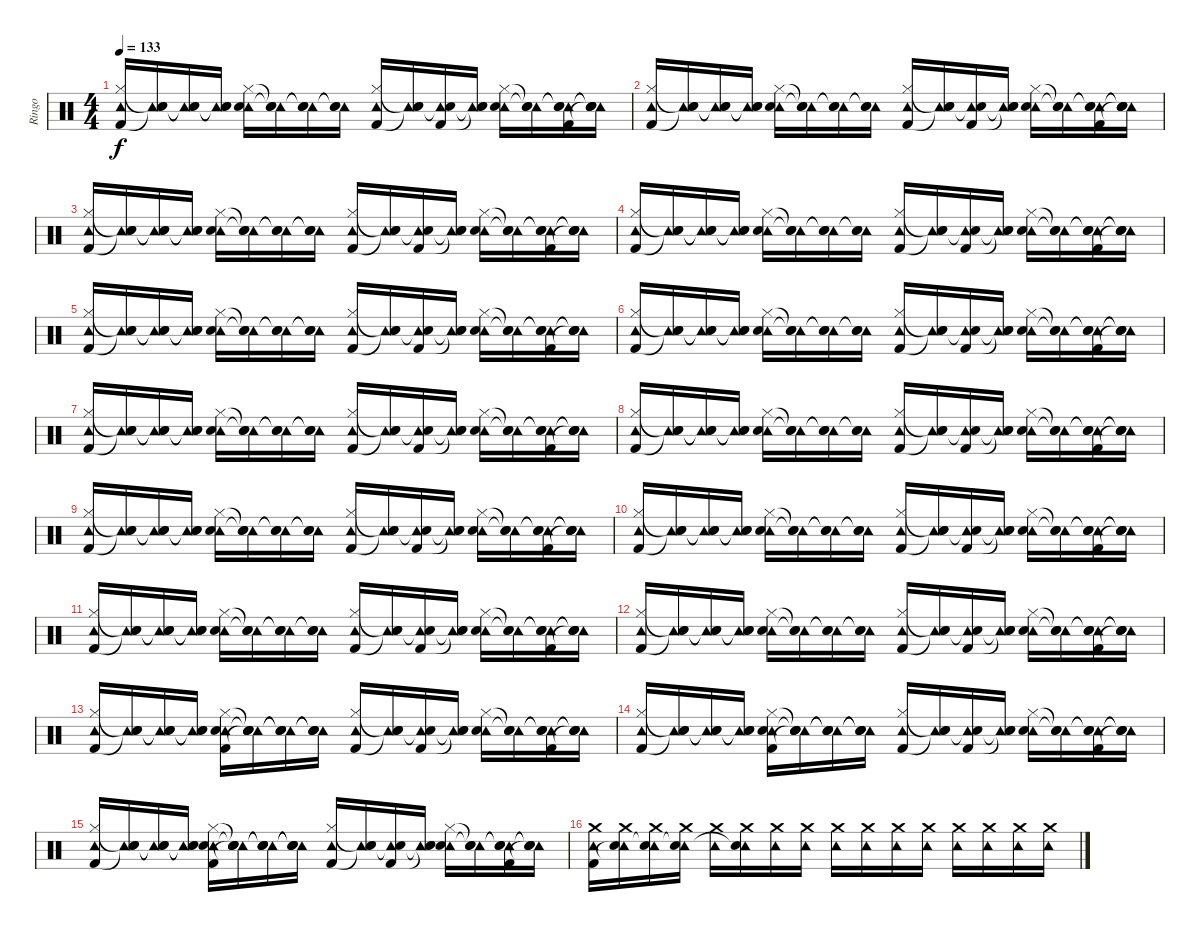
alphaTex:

\track ("Ringo" "Ringo") {instrument percussion}
\staff {score}
\articulation defaults
\ts (4 4)
\tempo 133
\clef neutral
\ks c
("Tambourine (hit)" "Hi-Hat (closed)" "Kick (hit) 2").16{dy f} ("Tambourine (hit)" "Snare (hit)"{t} "Snare (hit)"{t}).16 ("Tambourine (hit)" "Snare (hit)"{t} "Snare (hit)"{t}).16 ("Tambourine (hit)" "Snare (hit)"{t} "Snare (hit)"{t}).16 ("Tambourine (hit)" "Hi-Hat (closed)" "Snare (hit) 2").16 ("Tambourine (hit)" "Snare (hit)"{t} "Snare (hit)"{t}).16 ("Tambourine (hit)" "Snare (hit)"{t} "Snare (hit)"{t}).16 ("Tambourine (hit)" "Snare (hit)"{t} "Snare (hit)"{t}).16 ("Tambourine (hit)" "Hi-Hat (closed)" "Kick (hit) 2").16 ("Tambourine (hit)" "Snare (hit)"{t} "Snare (hit)"{t}).16 ("Tambourine (hit)" "Snare (hit)"{t} "Kick (hit) 2").16 ("Tambourine (hit)" "Snare (hit)"{t} "Snare (hit)"{t}).16 ("Tambourine (hit)" "Hi-Hat (closed)" "Snare (hit) 2").16 ("Tambourine (hit)" "Snare (hit)"{t} "Snare (hit)"{t}).16 ("Tambourine (hit)" "Snare (hit)"{t} "Snare (hit)"{t} "Kick (hit) 2").16 ("Tambourine (hit)" "Snare (hit)"{t} "Snare (hit)"{t} "Snare (hit)"{t}).16 |
("Tambourine (hit)" "Hi-Hat (closed)" "Kick (hit) 2").16 ("Tambourine (hit)" "Snare (hit)"{t} "Snare (hit)"{t}).16 ("Tambourine (hit)" "Snare (hit)"{t} "Snare (hit)"{t}).16 ("Tambourine (hit)" "Snare (hit)"{t} "Snare (hit)"{t}).16 ("Tambourine (hit)" "Hi-Hat (closed)" "Snare (hit) 2").16 ("Tambourine (hit)" "Snare (hit)"{t} "Snare (hit)"{t}).16 ("Tambourine (hit)" "Snare (hit)"{t} "Snare (hit)"{t}).16 ("Tambourine (hit)" "Snare (hit)"{t} "Snare (hit)"{t}).16 ("Tambourine (hit)" "Hi-Hat (closed)" "Kick (hit) 2").16 ("Tambourine (hit)" "Snare (hit)"{t} "Snare (hit)"{t}).16 ("Tambourine (hit)" "Snare (hit)"{t} "Kick (hit) 2").16 ("Tambourine (hit)" "Snare (hit)"{t} "Snare (hit)"{t}).16 ("Tambourine (hit)" "Hi-Hat (closed)" "Snare (hit) 2").16 ("Tambourine (hit)" "Snare (hit)"{t} "Snare (hit)"{t}).16 ("Tambourine (hit)" "Snare (hit)"{t} "Snare (hit)"{t} "Kick (hit) 2").16 ("Tambourine (hit)" "Snare (hit)"{t} "Snare (hit)"{t} "Snare (hit)"{t}).16 |
("Tambourine (hit)" "Hi-Hat (closed)" "Kick (hit) 2").16 ("Tambourine (hit)" "Snare (hit)"{t} "Snare (hit)"{t}).16 ("Tambourine (hit)" "Snare (hit)"{t} "Snare (hit)"{t}).16 ("Tambourine (hit)" "Snare (hit)"{t} "Snare (hit)"{t}).16 ("Tambourine (hit)" "Hi-Hat (closed)" "Snare (hit) 2").16 ("Tambourine (hit)" "Snare (hit)"{t} "Snare (hit)"{t}).16 ("Tambourine (hit)" "Snare (hit)"{t} "Snare (hit)"{t}).16 ("Tambourine (hit)" "Snare (hit)"{t} "Snare (hit)"{t}).16 ("Tambourine (hit)" "Hi-Hat (closed)" "Kick (hit) 2").16 ("Tambourine (hit)" "Snare (hit)"{t} "Snare (hit)"{t}).16 ("Tambourine (hit)" "Snare (hit)"{t} "Kick (hit) 2").16 ("Tambourine (hit)" "Snare (hit)"{t} "Snare (hit)"{t}).16 ("Tambourine (hit)" "Hi-Hat (closed)" "Snare (hit) 2").16 ("Tambourine (hit)" "Snare (hit)"{t} "Snare (hit)"{t}).16 ("Tambourine (hit)" "Snare (hit)"{t} "Snare (hit)"{t} "Kick (hit) 2").16 ("Tambourine (hit)" "Snare (hit)"{t} "Snare (hit)"{t} "Snare (hit)"{t}).16 |
("Tambourine (hit)" "Hi-Hat (closed)" "Kick (hit) 2").16 ("Tambourine (hit)" "Snare (hit)"{t} "Snare (hit)"{t}).16 ("Tambourine (hit)" "Snare (hit)"{t} "Snare (hit)"{t}).16 ("Tambourine (hit)" "Snare (hit)"{t} "Snare (hit)"{t}).16 ("Tambourine (hit)" "Hi-Hat (closed)" "Snare (hit) 2").16 ("Tambourine (hit)" "Snare (hit)"{t} "Snare (hit)"{t}).16 ("Tambourine (hit)" "Snare (hit)"{t} "Snare (hit)"{t}).16 ("Tambourine (hit)" "Snare (hit)"{t} "Snare (hit)"{t}).16 ("Tambourine (hit)" "Hi-Hat (closed)" "Kick (hit) 2").16 ("Tambourine (hit)" "Snare (hit)"{t} "Snare (hit)"{t}).16 ("Tambourine (hit)" "Snare (hit)"{t} "Kick (hit) 2").16 ("Tambourine (hit)" "Snare (hit)"{t} "Snare (hit)"{t}).16 ("Tambourine (hit)" "Hi-Hat (closed)" "Snare (hit) 2").16 ("Tambourine (hit)" "Snare (hit)"{t} "Snare (hit)"{t}).16 ("Tambourine (hit)" "Snare (hit)"{t} "Snare (hit)"{t} "Kick (hit) 2").16 ("Tambourine (hit)" "Snare (hit)"{t} "Snare (hit)"{t} "Snare (hit)"{t}).16 |
("Tambourine (hit)" "Hi-Hat (closed)" "Kick (hit) 2").16 ("Tambourine (hit)" "Snare (hit)"{t} "Snare (hit)"{t}).16 ("Tambourine (hit)" "Snare (hit)"{t} "Snare (hit)"{t}).16 ("Tambourine (hit)" "Snare (hit)"{t} "Snare (hit)"{t}).16 ("Tambourine (hit)" "Hi-Hat (closed)" "Snare (hit) 2").16 ("Tambourine (hit)" "Snare (hit)"{t} "Snare (hit)"{t}).16 ("Tambourine (hit)" "Snare (hit)"{t} "Snare (hit)"{t}).16 ("Tambourine (hit)" "Snare (hit)"{t} "Snare (hit)"{t}).16 ("Tambourine (hit)" "Hi-Hat (closed)" "Kick (hit) 2").16 ("Tambourine (hit)" "Snare (hit)"{t} "Snare (hit)"{t}).16 ("Tambourine (hit)" "Snare (hit)"{t} "Kick (hit) 2").16 ("Tambourine (hit)" "Snare (hit)"{t} "Snare (hit)"{t}).16 ("Tambourine (hit)" "Hi-Hat (closed)" "Snare (hit) 2").16 ("Tambourine (hit)" "Snare (hit)"{t} "Snare (hit)"{t}).16 ("Tambourine (hit)" "Snare (hit)"{t} "Snare (hit)"{t} "Kick (hit) 2").16 ("Tambourine (hit)" "Snare (hit)"{t} "Snare (hit)"{t} "Snare (hit)"{t}).16 |
("Tambourine (hit)" "Hi-Hat (closed)" "Kick (hit) 2").16 ("Tambourine (hit)" "Snare (hit)"{t} "Snare (hit)"{t}).16 ("Tambourine (hit)" "Snare (hit)"{t} "Snare (hit)"{t}).16 ("Tambourine (hit)" "Snare (hit)"{t} "Snare (hit)"{t}).16 ("Tambourine (hit)" "Hi-Hat (closed)" "Snare (hit) 2").16 ("Tambourine (hit)" "Snare (hit)"{t} "Snare (hit)"{t}).16 ("Tambourine (hit)" "Snare (hit)"{t} "Snare (hit)"{t}).16 ("Tambourine (hit)" "Snare (hit)"{t} "Snare (hit)"{t}).16 ("Tambourine (hit)" "Hi-Hat (closed)" "Kick (hit) 2").16 ("Tambourine (hit)" "Snare (hit)"{t} "Snare (hit)"{t}).16 ("Tambourine (hit)" "Snare (hit)"{t} "Kick (hit) 2").16 ("Tambourine (hit)" "Snare (hit)"{t} "Snare (hit)"{t}).16 ("Tambourine (hit)" "Hi-Hat (closed)" "Snare (hit) 2").16 ("Tambourine (hit)" "Snare (hit)"{t} "Snare (hit)"{t}).16 ("Tambourine (hit)" "Snare (hit)"{t} "Snare (hit)"{t} "Kick (hit) 2").16 ("Tambourine (hit)" "Snare (hit)"{t} "Snare (hit)"{t} "Snare (hit)"{t}).16 |
("Tambourine (hit)" "Hi-Hat (closed)" "Kick (hit) 2").16 ("Tambourine (hit)" "Snare (hit)"{t} "Snare (hit)"{t}).16 ("Tambourine (hit)" "Snare (hit)"{t} "Snare (hit)"{t}).16 ("Tambourine (hit)" "Snare (hit)"{t} "Snare (hit)"{t}).16 ("Tambourine (hit)" "Hi-Hat (closed)" "Snare (hit) 2").16 ("Tambourine (hit)" "Snare (hit)"{t} "Snare (hit)"{t}).16 ("Tambourine (hit)" "Snare (hit)"{t} "Snare (hit)"{t}).16 ("Tambourine (hit)" "Snare (hit)"{t} "Snare (hit)"{t}).16 ("Tambourine (hit)" "Hi-Hat (closed)" "Kick (hit) 2").16 ("Tambourine (hit)" "Snare (hit)"{t} "Snare (hit)"{t}).16 ("Tambourine (hit)" "Snare (hit)"{t} "Kick (hit) 2").16 ("Tambourine (hit)" "Snare (hit)"{t} "Snare (hit)"{t}).16 ("Tambourine (hit)" "Hi-Hat (closed)" "Snare (hit) 2").16 ("Tambourine (hit)" "Snare (hit)"{t} "Snare (hit)"{t}).16 ("Tambourine (hit)" "Snare (hit)"{t} "Snare (hit)"{t} "Kick (hit) 2").16 ("Tambourine (hit)" "Snare (hit)"{t} "Snare (hit)"{t} "Snare (hit)"{t}).16 |
("Tambourine (hit)" "Hi-Hat (closed)" "Kick (hit) 2").16 ("Tambourine (hit)" "Snare (hit)"{t} "Snare (hit)"{t}).16 ("Tambourine (hit)" "Snare (hit)"{t} "Snare (hit)"{t}).16 ("Tambourine (hit)" "Snare (hit)"{t} "Snare (hit)"{t}).16 ("Tambourine (hit)" "Hi-Hat (closed)" "Snare (hit) 2").16 ("Tambourine (hit)" "Snare (hit)"{t} "Snare (hit)"{t}).16 ("Tambourine (hit)" "Snare (hit)"{t} "Snare (hit)"{t}).16 ("Tambourine (hit)" "Snare (hit)"{t} "Snare (hit)"{t}).16 ("Tambourine (hit)" "Hi-Hat (closed)" "Kick (hit) 2").16 ("Tambourine (hit)" "Snare (hit)"{t} "Snare (hit)"{t}).16 ("Tambourine (hit)" "Snare (hit)"{t} "Kick (hit) 2").16 ("Tambourine (hit)" "Snare (hit)"{t} "Snare (hit)"{t}).16 ("Tambourine (hit)" "Hi-Hat (closed)" "Snare (hit) 2").16 ("Tambourine (hit)" "Snare (hit)"{t} "Snare (hit)"{t}).16 ("Tambourine (hit)" "Snare (hit)"{t} "Snare (hit)"{t} "Kick (hit) 2").16 ("Tambourine (hit)" "Snare (hit)"{t} "Snare (hit)"{t} "Snare (hit)"{t}).16 |
("Tambourine (hit)" "Hi-Hat (closed)" "Kick (hit) 2").16 ("Tambourine (hit)" "Snare (hit)"{t} "Snare (hit)"{t}).16 ("Tambourine (hit)" "Snare (hit)"{t} "Snare (hit)"{t}).16 ("Tambourine (hit)" "Snare (hit)"{t} "Snare (hit)"{t}).16 ("Tambourine (hit)" "Hi-Hat (closed)" "Snare (hit) 2").16 ("Tambourine (hit)" "Snare (hit)"{t} "Snare (hit)"{t}).16 ("Tambourine (hit)" "Snare (hit)"{t} "Snare (hit)"{t}).16 ("Tambourine (hit)" "Snare (hit)"{t} "Snare (hit)"{t}).16 ("Tambourine (hit)" "Hi-Hat (closed)" "Kick (hit) 2").16 ("Tambourine (hit)" "Snare (hit)"{t} "Snare (hit)"{t}).16 ("Tambourine (hit)" "Snare (hit)"{t} "Kick (hit) 2").16 ("Tambourine (hit)" "Snare (hit)"{t} "Snare (hit)"{t}).16 ("Tambourine (hit)" "Hi-Hat (closed)" "Snare (hit) 2").16 ("Tambourine (hit)" "Snare (hit)"{t} "Snare (hit)"{t}).16 ("Tambourine (hit)" "Snare (hit)"{t} "Snare (hit)"{t} "Kick (hit) 2").16 ("Tambourine (hit)" "Snare (hit)"{t} "Snare (hit)"{t} "Snare (hit)"{t}).16 |
("Tambourine (hit)" "Hi-Hat (closed)" "Kick (hit) 2").16 ("Tambourine (hit)" "Snare (hit)"{t} "Snare (hit)"{t}).16 ("Tambourine (hit)" "Snare (hit)"{t} "Snare (hit)"{t}).16 ("Tambourine (hit)" "Snare (hit)"{t} "Snare (hit)"{t}).16 ("Tambourine (hit)" "Hi-Hat (closed)" "Snare (hit) 2").16 ("Tambourine (hit)" "Snare (hit)"{t} "Snare (hit)"{t}).16 ("Tambourine (hit)" "Snare (hit)"{t} "Snare (hit)"{t}).16 ("Tambourine (hit)" "Snare (hit)"{t} "Snare (hit)"{t}).16 ("Tambourine (hit)" "Hi-Hat (closed)" "Kick (hit) 2").16 ("Tambourine (hit)" "Snare (hit)"{t} "Snare (hit)"{t}).16 ("Tambourine (hit)" "Snare (hit)"{t} "Kick (hit) 2").16 ("Tambourine (hit)" "Snare (hit)"{t} "Snare (hit)"{t}).16 ("Tambourine (hit)" "Hi-Hat (closed)" "Snare (hit) 2").16 ("Tambourine (hit)" "Snare (hit)"{t} "Snare (hit)"{t}).16 ("Tambourine (hit)" "Snare (hit)"{t} "Snare (hit)"{t} "Kick (hit) 2").16 ("Tambourine (hit)" "Snare (hit)"{t} "Snare (hit)"{t} "Snare (hit)"{t}).16 |
("Tambourine (hit)" "Hi-Hat (closed)" "Kick (hit) 2").16 ("Tambourine (hit)" "Snare (hit)"{t} "Snare (hit)"{t}).16 ("Tambourine (hit)" "Snare (hit)"{t} "Snare (hit)"{t}).16 ("Tambourine (hit)" "Snare (hit)"{t} "Snare (hit)"{t}).16 ("Tambourine (hit)" "Hi-Hat (closed)" "Snare (hit) 2").16 ("Tambourine (hit)" "Snare (hit)"{t} "Snare (hit)"{t}).16 ("Tambourine (hit)" "Snare (hit)"{t} "Snare (hit)"{t}).16 ("Tambourine (hit)" "Snare (hit)"{t} "Snare (hit)"{t}).16 ("Tambourine (hit)" "Hi-Hat (closed)" "Kick (hit) 2").16 ("Tambourine (hit)" "Snare (hit)"{t} "Snare (hit)"{t}).16 ("Tambourine (hit)" "Snare (hit)"{t} "Kick (hit) 2").16 ("Tambourine (hit)" "Snare (hit)"{t} "Snare (hit)"{t}).16 ("Tambourine (hit)" "Hi-Hat (closed)" "Snare (hit) 2").16 ("Tambourine (hit)" "Snare (hit)"{t} "Snare (hit)"{t}).16 ("Tambourine (hit)" "Snare (hit)"{t} "Snare (hit)"{t} "Kick (hit) 2").16 ("Tambourine (hit)" "Snare (hit)"{t} "Snare (hit)"{t} "Snare (hit)"{t}).16 |
("Tambourine (hit)" "Hi-Hat (closed)" "Kick (hit) 2").16 ("Tambourine (hit)" "Snare (hit)"{t} "Snare (hit)"{t}).16 ("Tambourine (hit)" "Snare (hit)"{t} "Snare (hit)"{t}).16 ("Tambourine (hit)" "Snare (hit)"{t} "Snare (hit)"{t}).16 ("Tambourine (hit)" "Hi-Hat (closed)" "Snare (hit) 2").16 ("Tambourine (hit)" "Snare (hit)"{t} "Snare (hit)"{t}).16 ("Tambourine (hit)" "Snare (hit)"{t} "Snare (hit)"{t}).16 ("Tambourine (hit)" "Snare (hit)"{t} "Snare (hit)"{t}).16 ("Tambourine (hit)" "Hi-Hat (closed)" "Kick (hit) 2").16 ("Tambourine (hit)" "Snare (hit)"{t} "Snare (hit)"{t}).16 ("Tambourine (hit)" "Snare (hit)"{t} "Kick (hit) 2").16 ("Tambourine (hit)" "Snare (hit)"{t} "Snare (hit)"{t}).16 ("Tambourine (hit)" "Hi-Hat (closed)" "Snare (hit) 2").16 ("Tambourine (hit)" "Snare (hit)"{t} "Snare (hit)"{t}).16 ("Tambourine (hit)" "Snare (hit)"{t} "Snare (hit)"{t} "Kick (hit) 2").16 ("Tambourine (hit)" "Snare (hit)"{t} "Snare (hit)"{t} "Snare (hit)"{t}).16 |
("Tambourine (hit)" "Hi-Hat (closed)" "Kick (hit) 2").16 ("Tambourine (hit)" "Snare (hit)"{t} "Snare (hit)"{t}).16 ("Tambourine (hit)" "Snare (hit)"{t} "Snare (hit)"{t}).16 ("Tambourine (hit)" "Snare (hit)"{t} "Snare (hit)"{t}).16 ("Tambourine (hit)" "Hi-Hat (closed)" "Snare (hit) 2" "Kick (hit) 2").16 ("Tambourine (hit)" "Snare (hit)"{t} "Snare (hit)"{t} "Snare (hit)"{t}).16 ("Tambourine (hit)" "Snare (hit)"{t} "Snare (hit)"{t} "Snare (hit)"{t}).16 ("Tambourine (hit)" "Snare (hit)"{t} "Snare (hit)"{t} "Snare (hit)"{t}).16 ("Tambourine (hit)" "Hi-Hat (closed)" "Kick (hit) 2").16 ("Tambourine (hit)" "Snare (hit)"{t} "Snare (hit)"{t}).16 ("Tambourine (hit)" "Snare (hit)"{t} "Kick (hit) 2").16 ("Tambourine (hit)" "Snare (hit)"{t} "Snare (hit)"{t}).16 ("Tambourine (hit)" "Hi-Hat (closed)" "Snare (hit) 2").16 ("Tambourine (hit)" "Snare (hit)"{t} "Snare (hit)"{t}).16 ("Tambourine (hit)" "Snare (hit)"{t} "Snare (hit)"{t} "Kick (hit) 2").16 ("Tambourine (hit)" "Snare (hit)"{t} "Snare (hit)"{t} "Snare (hit)"{t}).16 |
("Tambourine (hit)" "Hi-Hat (closed)" "Kick (hit) 2").16 ("Tambourine (hit)" "Snare (hit)"{t} "Snare (hit)"{t}).16 ("Tambourine (hit)" "Snare (hit)"{t} "Snare (hit)"{t}).16 ("Tambourine (hit)" "Snare (hit)"{t} "Snare (hit)"{t}).16 ("Tambourine (hit)" "Hi-Hat (closed)" "Snare (hit) 2" "Kick (hit) 2").16 ("Tambourine (hit)" "Snare (hit)"{t} "Snare (hit)"{t} "Snare (hit)"{t}).16 ("Tambourine (hit)" "Snare (hit)"{t} "Snare (hit)"{t} "Snare (hit)"{t}).16 ("Tambourine (hit)" "Snare (hit)"{t} "Snare (hit)"{t} "Snare (hit)"{t}).16 ("Tambourine (hit)" "Hi-Hat (closed)" "Kick (hit) 2").16 ("Tambourine (hit)" "Snare (hit)"{t} "Snare (hit)"{t}).16 ("Tambourine (hit)" "Snare (hit)"{t} "Kick (hit) 2").16 ("Tambourine (hit)" "Snare (hit)"{t} "Snare (hit)"{t}).16 ("Tambourine (hit)" "Hi-Hat (closed)" "Snare (hit) 2").16 ("Tambourine (hit)" "Snare (hit)"{t} "Snare (hit)"{t}).16 ("Tambourine (hit)" "Snare (hit)"{t} "Snare (hit)"{t} "Kick (hit) 2").16 ("Tambourine (hit)" "Snare (hit)"{t} "Snare (hit)"{t} "Snare (hit)"{t}).16 |
("Tambourine (hit)" "Hi-Hat (closed)" "Kick (hit) 2").16 ("Tambourine (hit)" "Snare (hit)"{t} "Snare (hit)"{t}).16 ("Tambourine (hit)" "Snare (hit)"{t} "Snare (hit)"{t}).16 ("Tambourine (hit)" "Snare (hit)"{t} "Snare (hit)"{t}).16 ("Tambourine (hit)" "Hi-Hat (closed)" "Snare (hit) 2" "Kick (hit) 2").16 ("Tambourine (hit)" "Snare (hit)"{t} "Snare (hit)"{t} "Snare (hit)"{t}).16 ("Tambourine (hit)" "Snare (hit)"{t} "Snare (hit)"{t} "Snare (hit)"{t}).16 ("Tambourine (hit)" "Snare (hit)"{t} "Snare (hit)"{t} "Snare (hit)"{t}).16 ("Tambourine (hit)" "Hi-Hat (closed)" "Kick (hit) 2").16 ("Tambourine (hit)" "Snare (hit)"{t} "Snare (hit)"{t}).16 ("Tambourine (hit)" "Snare (hit)"{t} "Kick (hit) 2").16 ("Tambourine (hit)" "Snare (hit)"{t} "Snare (hit)"{t}).16 ("Tambourine (hit)" "Hi-Hat (closed)" "Snare (hit) 2").16 ("Tambourine (hit)" "Snare (hit)"{t} "Snare (hit)"{t}).16 ("Tambourine (hit)" "Snare (hit)"{t} "Snare (hit)"{t} "Kick (hit) 2").16 ("Tambourine (hit)" "Snare (hit)"{t} "Snare (hit)"{t} "Snare (hit)"{t}).16 |
("Tambourine (hit)" "Crash medium (hit)" "Kick (hit) 2").16 ("Tambourine (hit)" "Crash medium (hit)" "Snare (hit)"{t}).16 ("Tambourine (hit)" "Crash medium (hit)" "Snare (hit)"{t}).16 ("Tambourine (hit)" "Crash medium (hit)" "Snare (hit)"{t}).16 ("Tambourine (hit)" "Crash medium (hit)").16 ("Tambourine (hit)" "Crash medium (hit)" "Snare (hit)"{t}).16 ("Tambourine (hit)" "Crash medium (hit)").16 ("Tambourine (hit)" "Crash medium (hit)").16 ("Tambourine (hit)" "Crash medium (hit)").16 ("Tambourine (hit)" "Crash medium (hit)").16 ("Tambourine (hit)" "Crash medium (hit)").16 ("Tambourine (hit)" "Crash medium (hit)").16 ("Tambourine (hit)" "Crash medium (hit)").16 ("Tambourine (hit)" "Crash medium (hit)").16 ("Tambourine (hit)" "Crash medium (hit)").16 ("Tambourine (hit)" "Crash medium (hit)").16
